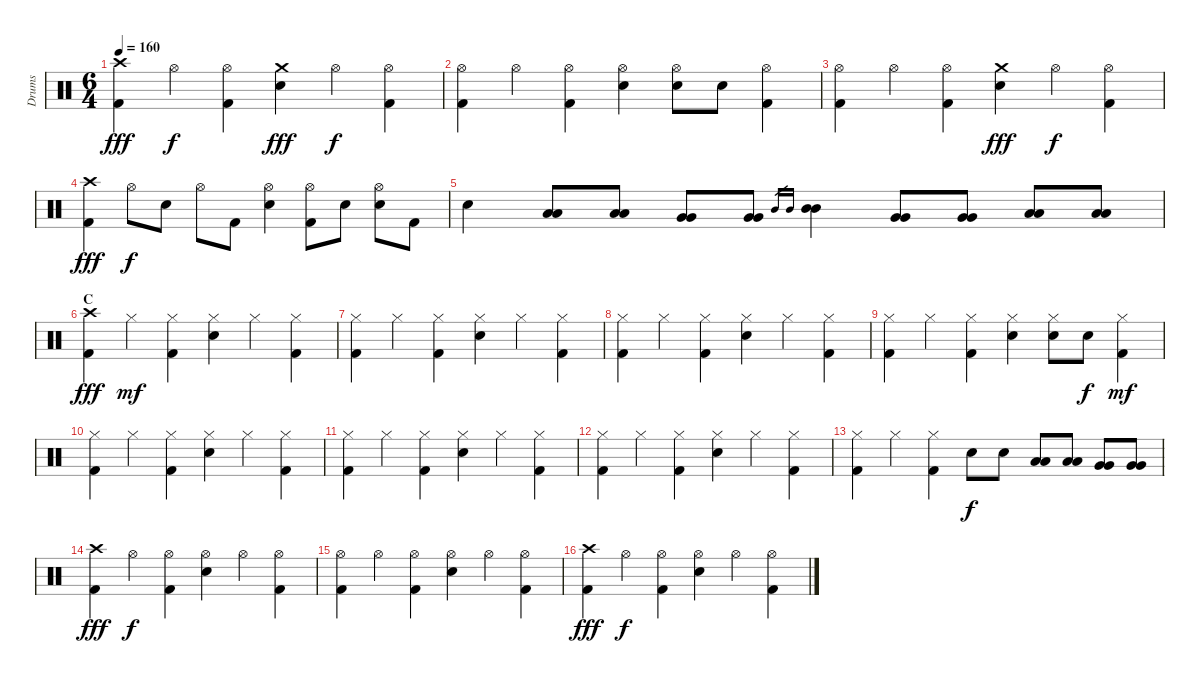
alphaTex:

\track ("Drums" "Drums") {instrument percussion}
\staff {score}
\articulation defaults
\ts (6 4)
\tempo 160
\clef neutral
\ks c
("Kick (hit) 2" "Crash high (hit)").4{dy fff} "Hi-Hat (open)".4{dy f} ("Kick (hit) 2" "Hi-Hat (open)").4 ("Electric Snare (hit)" "Crash medium (hit)").4{dy fff} "Hi-Hat (open)".4{dy f} ("Kick (hit) 2" "Hi-Hat (open)").4 |
("Kick (hit) 2" "Hi-Hat (open)").4 "Hi-Hat (open)".4 ("Kick (hit) 2" "Hi-Hat (open)").4 ("Electric Snare (hit)" "Hi-Hat (open)").4 ("Electric Snare (hit)" "Hi-Hat (open)").8 "Electric Snare (hit)".8 ("Kick (hit) 2" "Hi-Hat (open)").4 |
("Kick (hit) 2" "Hi-Hat (open)").4 "Hi-Hat (open)".4 ("Kick (hit) 2" "Hi-Hat (open)").4 ("Electric Snare (hit)" "Crash medium (hit)").4{dy fff} "Hi-Hat (open)".4{dy f} ("Kick (hit) 2" "Hi-Hat (open)").4 |
("Kick (hit) 2" "Crash high (hit)").4{dy fff} "Hi-Hat (open)".8{dy f} "Electric Snare (hit)".8 "Hi-Hat (open)".8 "Kick (hit) 2".8 ("Electric Snare (hit)" "Hi-Hat (open)").4 ("Kick (hit) 2" "Hi-Hat (open)").8 "Electric Snare (hit)".8 ("Electric Snare (hit)" "Hi-Hat (open)").8 "Kick (hit) 2".8 |
"Electric Snare (hit)".4 ("Low Tom (hit)" "Low Tom (hit)").8 ("Low Tom (hit)" "Low Tom (hit)").8 ("Very Low Tom (hit)" "Very Low Tom (hit)").8 ("Very Low Tom (hit)" "Very Low Tom (hit)").8 "Mid Tom (hit)".16{gr} "Mid Tom (hit)".16{gr} ("Mid Tom (hit)" "Mid Tom (hit)").4 ("Very Low Tom (hit)" "Very Low Tom (hit)").8 ("Very Low Tom (hit)" "Very Low Tom (hit)").8 ("Low Floor Tom (hit)" "Low Floor Tom (hit)").8 ("Low Floor Tom (hit)" "Low Floor Tom (hit)").8 |
\section ("" "C")
("Kick (hit) 2" "Crash high (hit)").4{dy fff} "Hi-Hat (closed)".4{dy mf} ("Kick (hit) 2" "Hi-Hat (closed)").4 ("Electric Snare (hit)" "Hi-Hat (closed)").4 "Hi-Hat (closed)".4 ("Kick (hit) 2" "Hi-Hat (closed)").4 |
("Kick (hit) 2" "Hi-Hat (closed)").4 "Hi-Hat (closed)".4 ("Kick (hit) 2" "Hi-Hat (closed)").4 ("Electric Snare (hit)" "Hi-Hat (closed)").4 "Hi-Hat (closed)".4 ("Kick (hit) 2" "Hi-Hat (closed)").4 |
("Kick (hit) 2" "Hi-Hat (closed)").4 "Hi-Hat (closed)".4 ("Kick (hit) 2" "Hi-Hat (closed)").4 ("Electric Snare (hit)" "Hi-Hat (closed)").4 "Hi-Hat (closed)".4 ("Kick (hit) 2" "Hi-Hat (closed)").4 |
("Kick (hit) 2" "Hi-Hat (closed)").4 "Hi-Hat (closed)".4 ("Kick (hit) 2" "Hi-Hat (closed)").4 ("Electric Snare (hit)" "Hi-Hat (closed)").4 ("Electric Snare (hit)" "Hi-Hat (closed)").8 "Electric Snare (hit)".8{dy f} ("Kick (hit) 2" "Hi-Hat (closed)").4{dy mf} |
("Kick (hit) 2" "Hi-Hat (closed)").4 "Hi-Hat (closed)".4 ("Kick (hit) 2" "Hi-Hat (closed)").4 ("Electric Snare (hit)" "Hi-Hat (closed)").4 "Hi-Hat (closed)".4 ("Kick (hit) 2" "Hi-Hat (closed)").4 |
("Kick (hit) 2" "Hi-Hat (closed)").4 "Hi-Hat (closed)".4 ("Kick (hit) 2" "Hi-Hat (closed)").4 ("Electric Snare (hit)" "Hi-Hat (closed)").4 "Hi-Hat (closed)".4 ("Kick (hit) 2" "Hi-Hat (closed)").4 |
("Kick (hit) 2" "Hi-Hat (closed)").4 "Hi-Hat (closed)".4 ("Kick (hit) 2" "Hi-Hat (closed)").4 ("Electric Snare (hit)" "Hi-Hat (closed)").4 "Hi-Hat (closed)".4 ("Kick (hit) 2" "Hi-Hat (closed)").4 |
("Kick (hit) 2" "Hi-Hat (closed)").4 "Hi-Hat (closed)".4 ("Kick (hit) 2" "Hi-Hat (closed)").4 "Electric Snare (hit)".8{dy f} "Electric Snare (hit)".8 ("Low Tom (hit)" "Low Tom (hit)").8 ("Low Tom (hit)" "Low Tom (hit)").8 ("Very Low Tom (hit)" "Very Low Tom (hit)").8 ("Very Low Tom (hit)" "Very Low Tom (hit)").8 |
("Kick (hit) 2" "Crash high (hit)").4{dy fff} "Hi-Hat (open)".4{dy f} ("Kick (hit) 2" "Hi-Hat (open)").4 ("Electric Snare (hit)" "Hi-Hat (open)").4 "Hi-Hat (open)".4 ("Kick (hit) 2" "Hi-Hat (open)").4 |
("Kick (hit) 2" "Hi-Hat (open)").4 "Hi-Hat (open)".4 ("Kick (hit) 2" "Hi-Hat (open)").4 ("Electric Snare (hit)" "Hi-Hat (open)").4 "Hi-Hat (open)".4 ("Kick (hit) 2" "Hi-Hat (open)").4 |
("Kick (hit) 2" "Crash high (hit)").4{dy fff} "Hi-Hat (open)".4{dy f} ("Kick (hit) 2" "Hi-Hat (open)").4 ("Electric Snare (hit)" "Hi-Hat (open)").4 "Hi-Hat (open)".4 ("Kick (hit) 2" "Hi-Hat (open)").4
